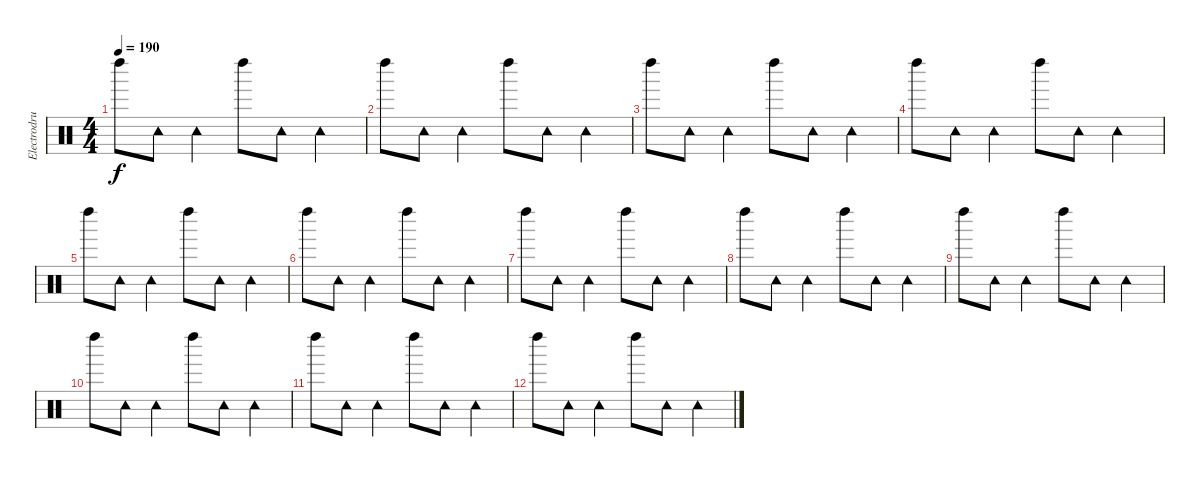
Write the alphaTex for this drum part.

\track ("Electrodrums2" "Electrodru") {instrument percussion}
\staff {score}
\articulation defaults
\ts (4 4)
\tempo 190
\clef neutral
\ks c "Left Maraca (hit)".8{dy f} "Tambourine (hit)".8 "Tambourine (hit)".4 "Left Maraca (hit)".8 "Tambourine (hit)".8 "Tambourine (hit)".4
|
"Left Maraca (hit)".8 "Tambourine (hit)".8 "Tambourine (hit)".4 "Left Maraca (hit)".8 "Tambourine (hit)".8 "Tambourine (hit)".4 |
"Left Maraca (hit)".8 "Tambourine (hit)".8 "Tambourine (hit)".4 "Left Maraca (hit)".8 "Tambourine (hit)".8 "Tambourine (hit)".4 |
"Left Maraca (hit)".8 "Tambourine (hit)".8 "Tambourine (hit)".4 "Left Maraca (hit)".8 "Tambourine (hit)".8 "Tambourine (hit)".4 |
"Left Maraca (hit)".8 "Tambourine (hit)".8 "Tambourine (hit)".4 "Left Maraca (hit)".8 "Tambourine (hit)".8 "Tambourine (hit)".4 |
"Left Maraca (hit)".8 "Tambourine (hit)".8 "Tambourine (hit)".4 "Left Maraca (hit)".8 "Tambourine (hit)".8 "Tambourine (hit)".4 |
"Left Maraca (hit)".8 "Tambourine (hit)".8 "Tambourine (hit)".4 "Left Maraca (hit)".8 "Tambourine (hit)".8 "Tambourine (hit)".4 |
"Left Maraca (hit)".8 "Tambourine (hit)".8 "Tambourine (hit)".4 "Left Maraca (hit)".8 "Tambourine (hit)".8 "Tambourine (hit)".4 |
"Left Maraca (hit)".8 "Tambourine (hit)".8 "Tambourine (hit)".4 "Left Maraca (hit)".8 "Tambourine (hit)".8 "Tambourine (hit)".4 |
"Left Maraca (hit)".8 "Tambourine (hit)".8 "Tambourine (hit)".4 "Left Maraca (hit)".8 "Tambourine (hit)".8 "Tambourine (hit)".4 |
"Left Maraca (hit)".8 "Tambourine (hit)".8 "Tambourine (hit)".4 "Left Maraca (hit)".8 "Tambourine (hit)".8 "Tambourine (hit)".4 |
"Left Maraca (hit)".8 "Tambourine (hit)".8 "Tambourine (hit)".4 "Left Maraca (hit)".8 "Tambourine (hit)".8 "Tambourine (hit)".4
